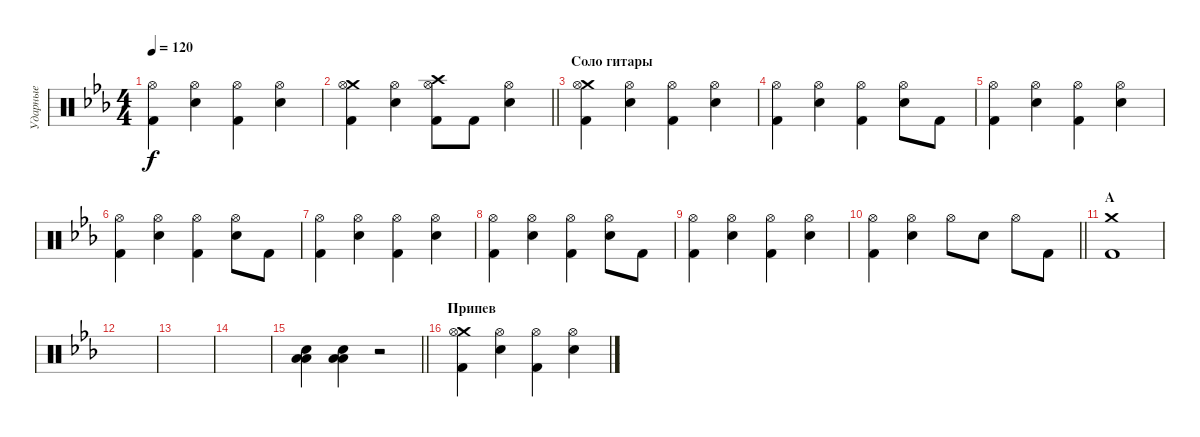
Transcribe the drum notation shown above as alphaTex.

\track ("Ударные" "Ударные") {instrument percussion}
\staff {score}
\articulation defaults
\ts (4 4)
\tempo 120
\clef neutral
\ks cminor
("Kick (hit) 2" "Hi-Hat (open)").4{dy f} ("Electric Snare (hit)" "Hi-Hat (open)").4 ("Kick (hit) 2" "Hi-Hat (open)").4 ("Electric Snare (hit)" "Hi-Hat (open)").4 |
\barLineRight lightlight
("Crash medium (hit)" "Kick (hit) 2" "Hi-Hat (open)").4 ("Electric Snare (hit)" "Hi-Hat (open)").4 ("Crash high (hit)" "Kick (hit) 2" "Hi-Hat (open)").8 "Kick (hit) 2".8 ("Electric Snare (hit)" "Hi-Hat (open)").4 |
\section ("" "Соло гитары")
("Crash medium (hit)" "Kick (hit) 2" "Hi-Hat (open)").4 ("Electric Snare (hit)" "Hi-Hat (open)").4 ("Kick (hit) 2" "Hi-Hat (open)").4 ("Electric Snare (hit)" "Hi-Hat (open)").4 |
("Kick (hit) 2" "Hi-Hat (open)").4 ("Electric Snare (hit)" "Hi-Hat (open)").4 ("Kick (hit) 2" "Hi-Hat (open)").4 ("Electric Snare (hit)" "Hi-Hat (open)").8 "Kick (hit) 2".8 |
("Kick (hit) 2" "Hi-Hat (open)").4 ("Electric Snare (hit)" "Hi-Hat (open)").4 ("Kick (hit) 2" "Hi-Hat (open)").4 ("Electric Snare (hit)" "Hi-Hat (open)").4 |
("Kick (hit) 2" "Hi-Hat (open)").4 ("Electric Snare (hit)" "Hi-Hat (open)").4 ("Kick (hit) 2" "Hi-Hat (open)").4 ("Electric Snare (hit)" "Hi-Hat (open)").8 "Kick (hit) 2".8 |
("Kick (hit) 2" "Hi-Hat (open)").4 ("Electric Snare (hit)" "Hi-Hat (open)").4 ("Kick (hit) 2" "Hi-Hat (open)").4 ("Electric Snare (hit)" "Hi-Hat (open)").4 |
("Kick (hit) 2" "Hi-Hat (open)").4 ("Electric Snare (hit)" "Hi-Hat (open)").4 ("Kick (hit) 2" "Hi-Hat (open)").4 ("Electric Snare (hit)" "Hi-Hat (open)").8 "Kick (hit) 2".8 |
("Kick (hit) 2" "Hi-Hat (open)").4 ("Electric Snare (hit)" "Hi-Hat (open)").4 ("Kick (hit) 2" "Hi-Hat (open)").4 ("Electric Snare (hit)" "Hi-Hat (open)").4 |
\barLineRight lightlight
("Kick (hit) 2" "Hi-Hat (open)").4 ("Electric Snare (hit)" "Hi-Hat (open)").4 "Hi-Hat (open)".8 "Electric Snare (hit)".8 "Hi-Hat (open)".8 "Kick (hit) 2".8 |
\section ("" "А")
("Crash medium (hit)" "Kick (hit) 2").1 |
|
|
|
\barLineRight lightlight
("Low Tom (hit)" "Low Floor Tom (hit)" "Electric Snare (hit)").4 ("Low Tom (hit)" "Low Floor Tom (hit)" "Electric Snare (hit)").4 r.2 |
\section ("" "Припев")
("Crash medium (hit)" "Kick (hit) 2" "Hi-Hat (open)").4 ("Electric Snare (hit)" "Hi-Hat (open)").4 ("Kick (hit) 2" "Hi-Hat (open)").4 ("Electric Snare (hit)" "Hi-Hat (open)").4
